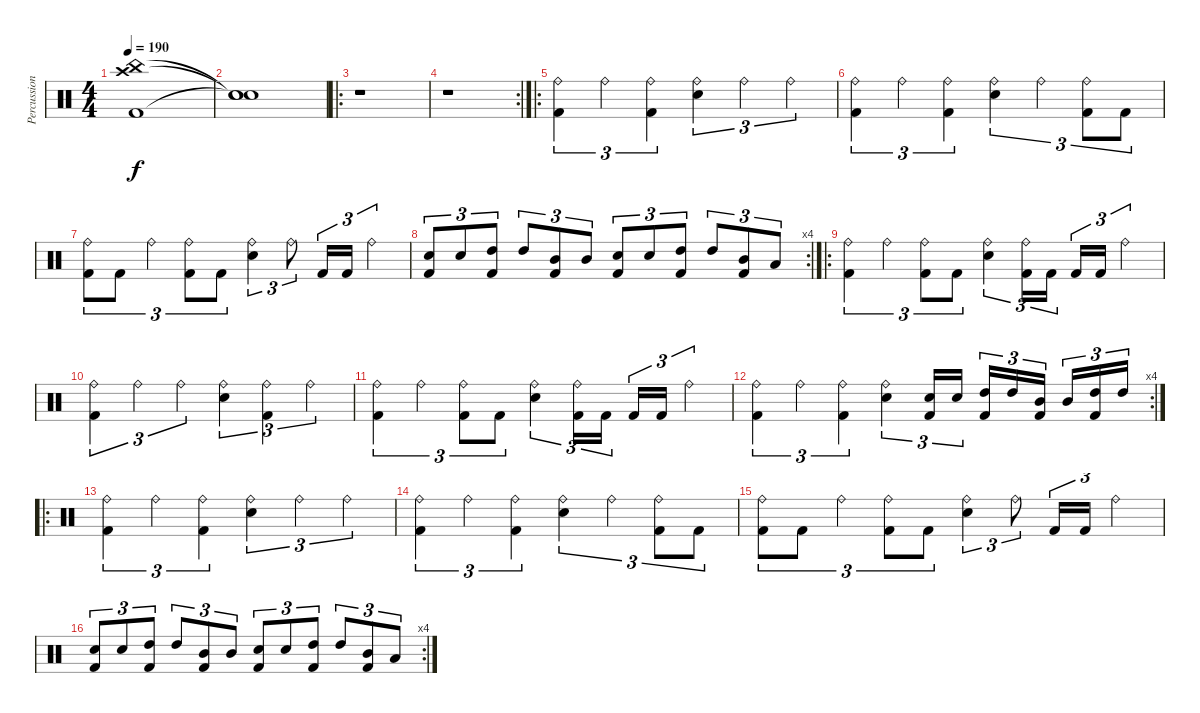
\track ("Percussion" "Percussion") {instrument percussion}
\staff {score}
\articulation defaults
\ts (4 4)
\tempo 190
\clef neutral
\ks c
("Kick (hit) 2" "China (hit)" "Crash high (hit)").1{dy f} |
("Snare (hit)"{t} "Snare (hit)"{t} "Snare (hit)"{t}).1 |
\ro
r.1 |
\rc 2
r.1 |
\ro
("Ride (bell)" "Kick (hit) 2").4{tu (3 2)} "Ride (bell)".4{tu (3 2)} ("Ride (bell)" "Kick (hit) 2").4{tu (3 2)} ("Ride (bell)" "Snare (hit) 2").4{tu (3 2)} "Ride (bell)".4{tu (3 2)} "Ride (bell)".4{tu (3 2)} |
("Ride (bell)" "Kick (hit) 2").4{tu (3 2)} "Ride (bell)".4{tu (3 2)} ("Ride (bell)" "Kick (hit) 2").4{tu (3 2)} ("Ride (bell)" "Snare (hit) 2").4{tu (3 2)} "Ride (bell)".4{tu (3 2)} ("Ride (bell)" "Kick (hit) 2").8{tu (3 2)} "Kick (hit) 2".8{tu (3 2)} |
("Ride (bell)" "Kick (hit) 2").8{tu (3 2)} "Kick (hit) 2".8{tu (3 2)} "Ride (bell)".4{tu (3 2)} ("Ride (bell)" "Kick (hit) 2").8{tu (3 2)} "Kick (hit) 2".8{tu (3 2)} ("Ride (bell)" "Snare (hit) 2").4{tu (3 2)} "Ride (bell)".8{tu (3 2)} "Kick (hit) 2".16{tu (3 2)} "Kick (hit) 2".16{tu (3 2)} "Ride (bell)".4{tu (3 2)} |
\rc 4
("Snare (hit) 2" "Kick (hit) 2").8{tu (3 2)} "Snare (hit) 2".8{tu (3 2)} ("High Tom (hit)" "Kick (hit) 2").8{tu (3 2)} "High Tom (hit)".8{tu (3 2)} ("Mid Tom (hit)" "Kick (hit) 2").8{tu (3 2)} "Mid Tom (hit)".8{tu (3 2)} ("Snare (hit) 2" "Kick (hit) 2").8{tu (3 2)} "Snare (hit) 2".8{tu (3 2)} ("High Tom (hit)" "Kick (hit) 2").8{tu (3 2)} "High Tom (hit)".8{tu (3 2)} ("Mid Tom (hit)" "Kick (hit) 2").8{tu (3 2)} "Low Tom (hit)".8{tu (3 2)} |
\ro
("Kick (hit) 2" "Ride (bell)").4{tu (3 2)} "Ride (bell)".4{tu (3 2)} ("Kick (hit) 2" "Ride (bell)").8{tu (3 2)} "Kick (hit) 2".8{tu (3 2)} ("Snare (hit) 2" "Ride (bell)").4{tu (3 2)} ("Kick (hit) 2" "Ride (bell)").16{tu (3 2)} "Kick (hit) 2".16{tu (3 2)} "Kick (hit) 2".16{tu (3 2)} "Kick (hit) 2".16{tu (3 2)} "Ride (bell)".4{tu (3 2)} |
("Kick (hit) 2" "Ride (bell)").4{tu (3 2)} "Ride (bell)".4{tu (3 2)} "Ride (bell)".4{tu (3 2)} ("Snare (hit) 2" "Ride (bell)").4{tu (3 2)} ("Kick (hit) 2" "Ride (bell)").4{tu (3 2)} "Ride (bell)".4{tu (3 2)} |
("Kick (hit) 2" "Ride (bell)").4{tu (3 2)} "Ride (bell)".4{tu (3 2)} ("Kick (hit) 2" "Ride (bell)").8{tu (3 2)} "Kick (hit) 2".8{tu (3 2)} ("Snare (hit) 2" "Ride (bell)").4{tu (3 2)} ("Kick (hit) 2" "Ride (bell)").16{tu (3 2)} "Kick (hit) 2".16{tu (3 2)} "Kick (hit) 2".16{tu (3 2)} "Kick (hit) 2".16{tu (3 2)} "Ride (bell)".4{tu (3 2)} |
\rc 4
("Kick (hit) 2" "Ride (bell)").4{tu (3 2)} "Ride (bell)".4{tu (3 2)} ("Kick (hit) 2" "Ride (bell)").4{tu (3 2)} ("Snare (hit) 2" "Ride (bell)").4{tu (3 2)} ("Kick (hit) 2" "Snare (hit) 2").16{tu (3 2)} "Snare (hit) 2".16{tu (3 2)} ("Kick (hit) 2" "High Tom (hit)").16{tu (3 2)} "High Tom (hit)".16{tu (3 2)} ("Kick (hit) 2" "Mid Tom (hit)").16{tu (3 2)} "Mid Tom (hit)".16{tu (3 2)} ("Kick (hit) 2" "High Tom (hit)").16{tu (3 2)} "High Tom (hit)".16{tu (3 2)} |
\ro
("Ride (bell)" "Kick (hit) 2").4{tu (3 2)} "Ride (bell)".4{tu (3 2)} ("Ride (bell)" "Kick (hit) 2").4{tu (3 2)} ("Ride (bell)" "Snare (hit) 2").4{tu (3 2)} "Ride (bell)".4{tu (3 2)} "Ride (bell)".4{tu (3 2)} |
("Ride (bell)" "Kick (hit) 2").4{tu (3 2)} "Ride (bell)".4{tu (3 2)} ("Ride (bell)" "Kick (hit) 2").4{tu (3 2)} ("Ride (bell)" "Snare (hit) 2").4{tu (3 2)} "Ride (bell)".4{tu (3 2)} ("Ride (bell)" "Kick (hit) 2").8{tu (3 2)} "Kick (hit) 2".8{tu (3 2)} |
("Ride (bell)" "Kick (hit) 2").8{tu (3 2)} "Kick (hit) 2".8{tu (3 2)} "Ride (bell)".4{tu (3 2)} ("Ride (bell)" "Kick (hit) 2").8{tu (3 2)} "Kick (hit) 2".8{tu (3 2)} ("Ride (bell)" "Snare (hit) 2").4{tu (3 2)} "Ride (bell)".8{tu (3 2)} "Kick (hit) 2".16{tu (3 2)} "Kick (hit) 2".16{tu (3 2)} "Ride (bell)".4{tu (3 2)} |
\rc 4
("Snare (hit) 2" "Kick (hit) 2").8{tu (3 2)} "Snare (hit) 2".8{tu (3 2)} ("High Tom (hit)" "Kick (hit) 2").8{tu (3 2)} "High Tom (hit)".8{tu (3 2)} ("Mid Tom (hit)" "Kick (hit) 2").8{tu (3 2)} "Mid Tom (hit)".8{tu (3 2)} ("Snare (hit) 2" "Kick (hit) 2").8{tu (3 2)} "Snare (hit) 2".8{tu (3 2)} ("High Tom (hit)" "Kick (hit) 2").8{tu (3 2)} "High Tom (hit)".8{tu (3 2)} ("Mid Tom (hit)" "Kick (hit) 2").8{tu (3 2)} "Low Tom (hit)".8{tu (3 2)}
